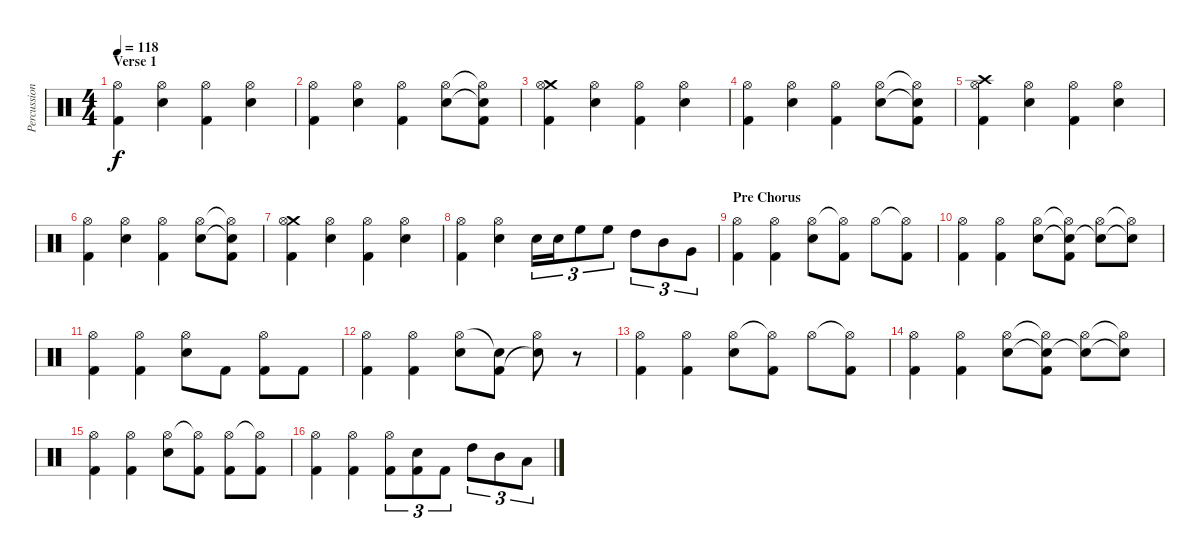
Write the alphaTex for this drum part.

\track ("Percussion" "Percussion") {instrument percussion}
\staff {score}
\articulation defaults
\ts (4 4)
\section ("" "Verse 1")
\tempo 118
\clef neutral
\ks c
("Hi-Hat (open)" "Kick (hit) 2").4{dy f} ("Hi-Hat (open)" "Electric Snare (hit)").4 ("Hi-Hat (open)" "Kick (hit) 2").4 ("Hi-Hat (open)" "Electric Snare (hit)").4 |
("Hi-Hat (open)" "Kick (hit) 2").4 ("Hi-Hat (open)" "Electric Snare (hit)").4 ("Hi-Hat (open)" "Kick (hit) 2").4 ("Hi-Hat (open)" "Electric Snare (hit)").8 ("Hi-Hat (open)"{t} "Electric Snare (hit)"{t} "Kick (hit) 2").8 |
("Crash medium (hit)" "Hi-Hat (open)" "Kick (hit) 2").4 ("Hi-Hat (open)" "Electric Snare (hit)").4 ("Hi-Hat (open)" "Kick (hit) 2").4 ("Hi-Hat (open)" "Electric Snare (hit)").4 |
("Hi-Hat (open)" "Kick (hit) 2").4 ("Hi-Hat (open)" "Electric Snare (hit)").4 ("Hi-Hat (open)" "Kick (hit) 2").4 ("Hi-Hat (open)" "Electric Snare (hit)").8 ("Hi-Hat (open)"{t} "Electric Snare (hit)"{t} "Kick (hit) 2").8 |
("Crash high (hit)" "Hi-Hat (open)" "Kick (hit) 2").4 ("Hi-Hat (open)" "Electric Snare (hit)").4 ("Hi-Hat (open)" "Kick (hit) 2").4 ("Hi-Hat (open)" "Electric Snare (hit)").4 |
("Hi-Hat (open)" "Kick (hit) 2").4 ("Hi-Hat (open)" "Electric Snare (hit)").4 ("Hi-Hat (open)" "Kick (hit) 2").4 ("Hi-Hat (open)" "Electric Snare (hit)").8 ("Hi-Hat (open)"{t} "Electric Snare (hit)"{t} "Kick (hit) 2").8 |
("Crash medium (hit)" "Hi-Hat (open)" "Kick (hit) 2").4 ("Hi-Hat (open)" "Electric Snare (hit)").4 ("Hi-Hat (open)" "Kick (hit) 2").4 ("Hi-Hat (open)" "Electric Snare (hit)").4 |
("Hi-Hat (open)" "Kick (hit) 2").4 ("Hi-Hat (open)" "Electric Snare (hit)").4 "Electric Snare (hit)".16{tu (3 2)} "Electric Snare (hit)".16{tu (3 2)} "High Floor Tom (hit)".8{tu (3 2)} "High Floor Tom (hit)".8{tu (3 2)} "High Tom (hit)".8{tu (3 2)} "Mid Tom (hit)".8{tu (3 2)} "Very Low Tom (hit)".8{tu (3 2)} |
\section ("" "Pre Chorus")
("Hi-Hat (open)" "Kick (hit) 2").4 ("Hi-Hat (open)" "Kick (hit) 2").4 ("Hi-Hat (open)" "Electric Snare (hit)").8 ("Hi-Hat (open)"{t} "Kick (hit) 2").8 "Hi-Hat (open)".8 ("Hi-Hat (open)"{t} "Kick (hit) 2").8 |
("Hi-Hat (open)" "Kick (hit) 2").4 ("Hi-Hat (open)" "Kick (hit) 2").4 ("Hi-Hat (open)" "Electric Snare (hit)").8 ("Hi-Hat (open)"{t} "Electric Snare (hit)"{t} "Kick (hit) 2").8 ("Hi-Hat (open)" "Electric Snare (hit)"{t}).8 ("Hi-Hat (open)"{t} "Electric Snare (hit)"{t}).8 |
("Hi-Hat (open)" "Kick (hit) 2").4 ("Hi-Hat (open)" "Kick (hit) 2").4 ("Hi-Hat (open)" "Electric Snare (hit)").8 "Kick (hit) 2".8 ("Hi-Hat (open)" "Kick (hit) 2").8 "Kick (hit) 2".8 |
("Hi-Hat (open)" "Kick (hit) 2").4 ("Hi-Hat (open)" "Kick (hit) 2").4 ("Hi-Hat (open)" "Electric Snare (hit)").8 ("Electric Snare (hit)"{t} "Kick (hit) 2").8 ("Hi-Hat (open)" "Electric Snare (hit)"{t}).8 r.8 |
("Hi-Hat (open)" "Kick (hit) 2").4 ("Hi-Hat (open)" "Kick (hit) 2").4 ("Hi-Hat (open)" "Electric Snare (hit)").8 ("Hi-Hat (open)"{t} "Kick (hit) 2").8 "Hi-Hat (open)".8 ("Hi-Hat (open)"{t} "Kick (hit) 2").8 |
("Hi-Hat (open)" "Kick (hit) 2").4 ("Hi-Hat (open)" "Kick (hit) 2").4 ("Hi-Hat (open)" "Electric Snare (hit)").8 ("Hi-Hat (open)"{t} "Electric Snare (hit)"{t} "Kick (hit) 2").8 ("Hi-Hat (open)" "Electric Snare (hit)"{t}).8 ("Hi-Hat (open)"{t} "Electric Snare (hit)"{t}).8 |
("Hi-Hat (open)" "Kick (hit) 2").4 ("Hi-Hat (open)" "Kick (hit) 2").4 ("Hi-Hat (open)" "Electric Snare (hit)").8 ("Hi-Hat (open)"{t} "Kick (hit) 2").8 ("Hi-Hat (open)" "Kick (hit) 2").8 ("Hi-Hat (open)"{t} "Kick (hit) 2").8 |
("Hi-Hat (open)" "Kick (hit) 2").4 ("Hi-Hat (open)" "Kick (hit) 2").4 ("Hi-Hat (open)" "Kick (hit) 2").8{tu (3 2)} ("Electric Snare (hit)" "Kick (hit) 2").8{tu (3 2)} "Kick (hit) 2".8{tu (3 2)} "High Tom (hit)".8{tu (3 2)} "Mid Tom (hit)".8{tu (3 2)} "Low Tom (hit)".8{tu (3 2)}
